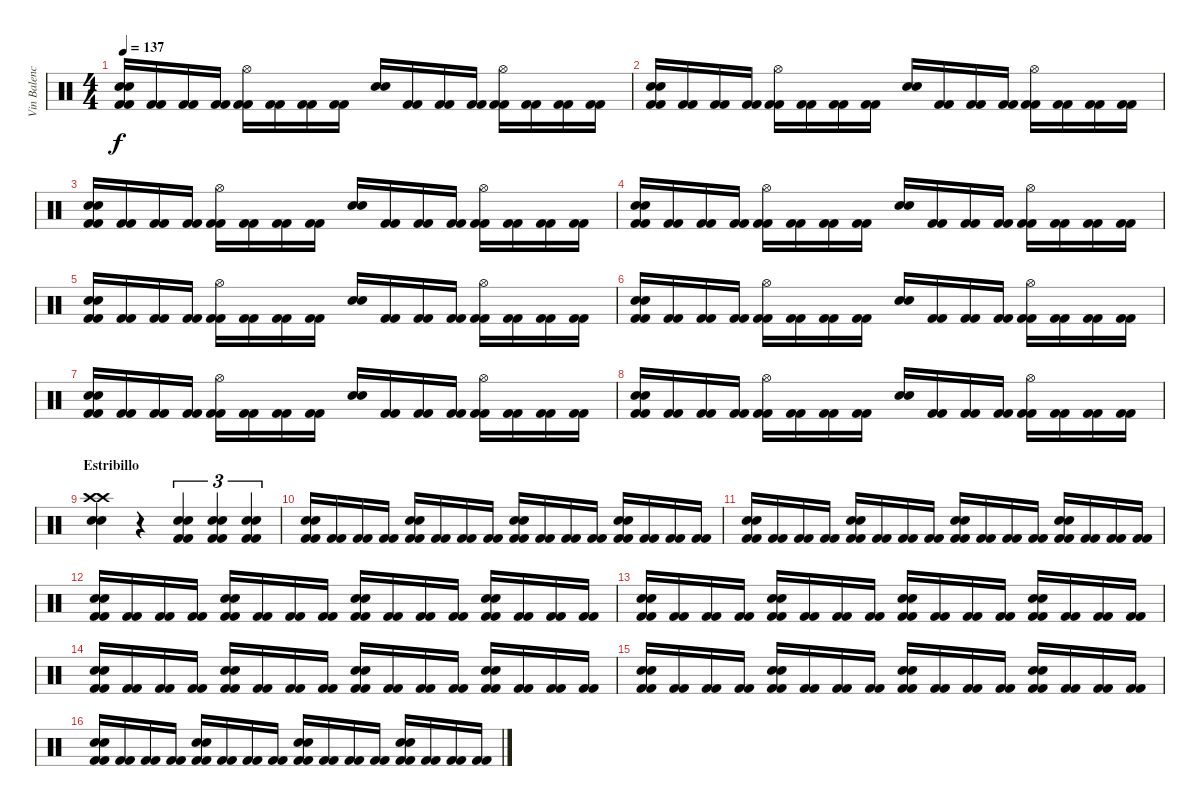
\track ("Vin Balencia (bateria)" "Vin Balenc") {instrument percussion}
\staff {score}
\articulation defaults
\ts (4 4)
\tempo 137
\clef neutral
\ks c
("Electric Snare (hit)" "Electric Snare (hit)" "Kick (hit) 2" "Kick (hit) 2").16{dy f} ("Kick (hit) 2" "Kick (hit) 2").16 ("Kick (hit) 2" "Kick (hit) 2").16 ("Kick (hit) 2" "Kick (hit) 2").16 ("Hi-Hat (open)" "Kick (hit) 2" "Kick (hit) 2").16 ("Kick (hit) 2" "Kick (hit) 2").16 ("Kick (hit) 2" "Kick (hit) 2").16 ("Kick (hit) 2" "Kick (hit) 2").16 ("Electric Snare (hit)" "Electric Snare (hit)").16 ("Kick (hit) 2" "Kick (hit) 2").16 ("Kick (hit) 2" "Kick (hit) 2").16 ("Kick (hit) 2" "Kick (hit) 2").16 ("Hi-Hat (open)" "Kick (hit) 2" "Kick (hit) 2").16 ("Kick (hit) 2" "Kick (hit) 2").16 ("Kick (hit) 2" "Kick (hit) 2").16 ("Kick (hit) 2" "Kick (hit) 2").16 |
("Electric Snare (hit)" "Electric Snare (hit)" "Kick (hit) 2" "Kick (hit) 2").16 ("Kick (hit) 2" "Kick (hit) 2").16 ("Kick (hit) 2" "Kick (hit) 2").16 ("Kick (hit) 2" "Kick (hit) 2").16 ("Hi-Hat (open)" "Kick (hit) 2" "Kick (hit) 2").16 ("Kick (hit) 2" "Kick (hit) 2").16 ("Kick (hit) 2" "Kick (hit) 2").16 ("Kick (hit) 2" "Kick (hit) 2").16 ("Electric Snare (hit)" "Electric Snare (hit)").16 ("Kick (hit) 2" "Kick (hit) 2").16 ("Kick (hit) 2" "Kick (hit) 2").16 ("Kick (hit) 2" "Kick (hit) 2").16 ("Hi-Hat (open)" "Kick (hit) 2" "Kick (hit) 2").16 ("Kick (hit) 2" "Kick (hit) 2").16 ("Kick (hit) 2" "Kick (hit) 2").16 ("Kick (hit) 2" "Kick (hit) 2").16 |
("Electric Snare (hit)" "Electric Snare (hit)" "Kick (hit) 2" "Kick (hit) 2").16 ("Kick (hit) 2" "Kick (hit) 2").16 ("Kick (hit) 2" "Kick (hit) 2").16 ("Kick (hit) 2" "Kick (hit) 2").16 ("Hi-Hat (open)" "Kick (hit) 2" "Kick (hit) 2").16 ("Kick (hit) 2" "Kick (hit) 2").16 ("Kick (hit) 2" "Kick (hit) 2").16 ("Kick (hit) 2" "Kick (hit) 2").16 ("Electric Snare (hit)" "Electric Snare (hit)").16 ("Kick (hit) 2" "Kick (hit) 2").16 ("Kick (hit) 2" "Kick (hit) 2").16 ("Kick (hit) 2" "Kick (hit) 2").16 ("Hi-Hat (open)" "Kick (hit) 2" "Kick (hit) 2").16 ("Kick (hit) 2" "Kick (hit) 2").16 ("Kick (hit) 2" "Kick (hit) 2").16 ("Kick (hit) 2" "Kick (hit) 2").16 |
("Electric Snare (hit)" "Electric Snare (hit)" "Kick (hit) 2" "Kick (hit) 2").16 ("Kick (hit) 2" "Kick (hit) 2").16 ("Kick (hit) 2" "Kick (hit) 2").16 ("Kick (hit) 2" "Kick (hit) 2").16 ("Hi-Hat (open)" "Kick (hit) 2" "Kick (hit) 2").16 ("Kick (hit) 2" "Kick (hit) 2").16 ("Kick (hit) 2" "Kick (hit) 2").16 ("Kick (hit) 2" "Kick (hit) 2").16 ("Electric Snare (hit)" "Electric Snare (hit)").16 ("Kick (hit) 2" "Kick (hit) 2").16 ("Kick (hit) 2" "Kick (hit) 2").16 ("Kick (hit) 2" "Kick (hit) 2").16 ("Hi-Hat (open)" "Kick (hit) 2" "Kick (hit) 2").16 ("Kick (hit) 2" "Kick (hit) 2").16 ("Kick (hit) 2" "Kick (hit) 2").16 ("Kick (hit) 2" "Kick (hit) 2").16 |
("Electric Snare (hit)" "Electric Snare (hit)" "Kick (hit) 2" "Kick (hit) 2").16 ("Kick (hit) 2" "Kick (hit) 2").16 ("Kick (hit) 2" "Kick (hit) 2").16 ("Kick (hit) 2" "Kick (hit) 2").16 ("Hi-Hat (open)" "Kick (hit) 2" "Kick (hit) 2").16 ("Kick (hit) 2" "Kick (hit) 2").16 ("Kick (hit) 2" "Kick (hit) 2").16 ("Kick (hit) 2" "Kick (hit) 2").16 ("Electric Snare (hit)" "Electric Snare (hit)").16 ("Kick (hit) 2" "Kick (hit) 2").16 ("Kick (hit) 2" "Kick (hit) 2").16 ("Kick (hit) 2" "Kick (hit) 2").16 ("Hi-Hat (open)" "Kick (hit) 2" "Kick (hit) 2").16 ("Kick (hit) 2" "Kick (hit) 2").16 ("Kick (hit) 2" "Kick (hit) 2").16 ("Kick (hit) 2" "Kick (hit) 2").16 |
("Electric Snare (hit)" "Electric Snare (hit)" "Kick (hit) 2" "Kick (hit) 2").16 ("Kick (hit) 2" "Kick (hit) 2").16 ("Kick (hit) 2" "Kick (hit) 2").16 ("Kick (hit) 2" "Kick (hit) 2").16 ("Hi-Hat (open)" "Kick (hit) 2" "Kick (hit) 2").16 ("Kick (hit) 2" "Kick (hit) 2").16 ("Kick (hit) 2" "Kick (hit) 2").16 ("Kick (hit) 2" "Kick (hit) 2").16 ("Electric Snare (hit)" "Electric Snare (hit)").16 ("Kick (hit) 2" "Kick (hit) 2").16 ("Kick (hit) 2" "Kick (hit) 2").16 ("Kick (hit) 2" "Kick (hit) 2").16 ("Hi-Hat (open)" "Kick (hit) 2" "Kick (hit) 2").16 ("Kick (hit) 2" "Kick (hit) 2").16 ("Kick (hit) 2" "Kick (hit) 2").16 ("Kick (hit) 2" "Kick (hit) 2").16 |
("Electric Snare (hit)" "Electric Snare (hit)" "Kick (hit) 2" "Kick (hit) 2").16 ("Kick (hit) 2" "Kick (hit) 2").16 ("Kick (hit) 2" "Kick (hit) 2").16 ("Kick (hit) 2" "Kick (hit) 2").16 ("Hi-Hat (open)" "Kick (hit) 2" "Kick (hit) 2").16 ("Kick (hit) 2" "Kick (hit) 2").16 ("Kick (hit) 2" "Kick (hit) 2").16 ("Kick (hit) 2" "Kick (hit) 2").16 ("Electric Snare (hit)" "Electric Snare (hit)").16 ("Kick (hit) 2" "Kick (hit) 2").16 ("Kick (hit) 2" "Kick (hit) 2").16 ("Kick (hit) 2" "Kick (hit) 2").16 ("Hi-Hat (open)" "Kick (hit) 2" "Kick (hit) 2").16 ("Kick (hit) 2" "Kick (hit) 2").16 ("Kick (hit) 2" "Kick (hit) 2").16 ("Kick (hit) 2" "Kick (hit) 2").16 |
("Electric Snare (hit)" "Electric Snare (hit)" "Kick (hit) 2" "Kick (hit) 2").16 ("Kick (hit) 2" "Kick (hit) 2").16 ("Kick (hit) 2" "Kick (hit) 2").16 ("Kick (hit) 2" "Kick (hit) 2").16 ("Hi-Hat (open)" "Kick (hit) 2" "Kick (hit) 2").16 ("Kick (hit) 2" "Kick (hit) 2").16 ("Kick (hit) 2" "Kick (hit) 2").16 ("Kick (hit) 2" "Kick (hit) 2").16 ("Electric Snare (hit)" "Electric Snare (hit)").16 ("Kick (hit) 2" "Kick (hit) 2").16 ("Kick (hit) 2" "Kick (hit) 2").16 ("Kick (hit) 2" "Kick (hit) 2").16 ("Hi-Hat (open)" "Kick (hit) 2" "Kick (hit) 2").16 ("Kick (hit) 2" "Kick (hit) 2").16 ("Kick (hit) 2" "Kick (hit) 2").16 ("Kick (hit) 2" "Kick (hit) 2").16 |
\section ("" "Estribillo")
("Crash high (hit)" "Crash high (hit)" "Snare (hit) 2" "Snare (hit) 2").4 r.4 ("Electric Snare (hit)" "Electric Snare (hit)" "Kick (hit) 2" "Kick (hit) 2").4{tu (3 2)} ("Electric Snare (hit)" "Electric Snare (hit)" "Kick (hit) 2" "Kick (hit) 2").4{tu (3 2)} ("Electric Snare (hit)" "Electric Snare (hit)" "Kick (hit) 2" "Kick (hit) 2").4{tu (3 2)} |
("Electric Snare (hit)" "Electric Snare (hit)" "Kick (hit) 2" "Kick (hit) 2").16 ("Kick (hit) 2" "Kick (hit) 2").16 ("Kick (hit) 2" "Kick (hit) 2").16 ("Kick (hit) 2" "Kick (hit) 2").16 ("Electric Snare (hit)" "Electric Snare (hit)" "Kick (hit) 2" "Kick (hit) 2").16 ("Kick (hit) 2" "Kick (hit) 2").16 ("Kick (hit) 2" "Kick (hit) 2").16 ("Kick (hit) 2" "Kick (hit) 2").16 ("Electric Snare (hit)" "Electric Snare (hit)" "Kick (hit) 2" "Kick (hit) 2").16 ("Kick (hit) 2" "Kick (hit) 2").16 ("Kick (hit) 2" "Kick (hit) 2").16 ("Kick (hit) 2" "Kick (hit) 2").16 ("Electric Snare (hit)" "Electric Snare (hit)" "Kick (hit) 2" "Kick (hit) 2").16 ("Kick (hit) 2" "Kick (hit) 2").16 ("Kick (hit) 2" "Kick (hit) 2").16 ("Kick (hit) 2" "Kick (hit) 2").16 |
("Electric Snare (hit)" "Electric Snare (hit)" "Kick (hit) 2" "Kick (hit) 2").16 ("Kick (hit) 2" "Kick (hit) 2").16 ("Kick (hit) 2" "Kick (hit) 2").16 ("Kick (hit) 2" "Kick (hit) 2").16 ("Electric Snare (hit)" "Electric Snare (hit)" "Kick (hit) 2" "Kick (hit) 2").16 ("Kick (hit) 2" "Kick (hit) 2").16 ("Kick (hit) 2" "Kick (hit) 2").16 ("Kick (hit) 2" "Kick (hit) 2").16 ("Electric Snare (hit)" "Electric Snare (hit)" "Kick (hit) 2" "Kick (hit) 2").16 ("Kick (hit) 2" "Kick (hit) 2").16 ("Kick (hit) 2" "Kick (hit) 2").16 ("Kick (hit) 2" "Kick (hit) 2").16 ("Electric Snare (hit)" "Electric Snare (hit)" "Kick (hit) 2" "Kick (hit) 2").16 ("Kick (hit) 2" "Kick (hit) 2").16 ("Kick (hit) 2" "Kick (hit) 2").16 ("Kick (hit) 2" "Kick (hit) 2").16 |
("Electric Snare (hit)" "Electric Snare (hit)" "Kick (hit) 2" "Kick (hit) 2").16 ("Kick (hit) 2" "Kick (hit) 2").16 ("Kick (hit) 2" "Kick (hit) 2").16 ("Kick (hit) 2" "Kick (hit) 2").16 ("Electric Snare (hit)" "Electric Snare (hit)" "Kick (hit) 2" "Kick (hit) 2").16 ("Kick (hit) 2" "Kick (hit) 2").16 ("Kick (hit) 2" "Kick (hit) 2").16 ("Kick (hit) 2" "Kick (hit) 2").16 ("Electric Snare (hit)" "Electric Snare (hit)" "Kick (hit) 2" "Kick (hit) 2").16 ("Kick (hit) 2" "Kick (hit) 2").16 ("Kick (hit) 2" "Kick (hit) 2").16 ("Kick (hit) 2" "Kick (hit) 2").16 ("Electric Snare (hit)" "Electric Snare (hit)" "Kick (hit) 2" "Kick (hit) 2").16 ("Kick (hit) 2" "Kick (hit) 2").16 ("Kick (hit) 2" "Kick (hit) 2").16 ("Kick (hit) 2" "Kick (hit) 2").16 |
("Electric Snare (hit)" "Electric Snare (hit)" "Kick (hit) 2" "Kick (hit) 2").16 ("Kick (hit) 2" "Kick (hit) 2").16 ("Kick (hit) 2" "Kick (hit) 2").16 ("Kick (hit) 2" "Kick (hit) 2").16 ("Electric Snare (hit)" "Electric Snare (hit)" "Kick (hit) 2" "Kick (hit) 2").16 ("Kick (hit) 2" "Kick (hit) 2").16 ("Kick (hit) 2" "Kick (hit) 2").16 ("Kick (hit) 2" "Kick (hit) 2").16 ("Electric Snare (hit)" "Electric Snare (hit)" "Kick (hit) 2" "Kick (hit) 2").16 ("Kick (hit) 2" "Kick (hit) 2").16 ("Kick (hit) 2" "Kick (hit) 2").16 ("Kick (hit) 2" "Kick (hit) 2").16 ("Electric Snare (hit)" "Electric Snare (hit)" "Kick (hit) 2" "Kick (hit) 2").16 ("Kick (hit) 2" "Kick (hit) 2").16 ("Kick (hit) 2" "Kick (hit) 2").16 ("Kick (hit) 2" "Kick (hit) 2").16 |
("Electric Snare (hit)" "Electric Snare (hit)" "Kick (hit) 2" "Kick (hit) 2").16 ("Kick (hit) 2" "Kick (hit) 2").16 ("Kick (hit) 2" "Kick (hit) 2").16 ("Kick (hit) 2" "Kick (hit) 2").16 ("Electric Snare (hit)" "Electric Snare (hit)" "Kick (hit) 2" "Kick (hit) 2").16 ("Kick (hit) 2" "Kick (hit) 2").16 ("Kick (hit) 2" "Kick (hit) 2").16 ("Kick (hit) 2" "Kick (hit) 2").16 ("Electric Snare (hit)" "Electric Snare (hit)" "Kick (hit) 2" "Kick (hit) 2").16 ("Kick (hit) 2" "Kick (hit) 2").16 ("Kick (hit) 2" "Kick (hit) 2").16 ("Kick (hit) 2" "Kick (hit) 2").16 ("Electric Snare (hit)" "Electric Snare (hit)" "Kick (hit) 2" "Kick (hit) 2").16 ("Kick (hit) 2" "Kick (hit) 2").16 ("Kick (hit) 2" "Kick (hit) 2").16 ("Kick (hit) 2" "Kick (hit) 2").16 |
("Electric Snare (hit)" "Electric Snare (hit)" "Kick (hit) 2" "Kick (hit) 2").16 ("Kick (hit) 2" "Kick (hit) 2").16 ("Kick (hit) 2" "Kick (hit) 2").16 ("Kick (hit) 2" "Kick (hit) 2").16 ("Electric Snare (hit)" "Electric Snare (hit)" "Kick (hit) 2" "Kick (hit) 2").16 ("Kick (hit) 2" "Kick (hit) 2").16 ("Kick (hit) 2" "Kick (hit) 2").16 ("Kick (hit) 2" "Kick (hit) 2").16 ("Electric Snare (hit)" "Electric Snare (hit)" "Kick (hit) 2" "Kick (hit) 2").16 ("Kick (hit) 2" "Kick (hit) 2").16 ("Kick (hit) 2" "Kick (hit) 2").16 ("Kick (hit) 2" "Kick (hit) 2").16 ("Electric Snare (hit)" "Electric Snare (hit)" "Kick (hit) 2" "Kick (hit) 2").16 ("Kick (hit) 2" "Kick (hit) 2").16 ("Kick (hit) 2" "Kick (hit) 2").16 ("Kick (hit) 2" "Kick (hit) 2").16 |
("Electric Snare (hit)" "Electric Snare (hit)" "Kick (hit) 2" "Kick (hit) 2").16 ("Kick (hit) 2" "Kick (hit) 2").16 ("Kick (hit) 2" "Kick (hit) 2").16 ("Kick (hit) 2" "Kick (hit) 2").16 ("Electric Snare (hit)" "Electric Snare (hit)" "Kick (hit) 2" "Kick (hit) 2").16 ("Kick (hit) 2" "Kick (hit) 2").16 ("Kick (hit) 2" "Kick (hit) 2").16 ("Kick (hit) 2" "Kick (hit) 2").16 ("Electric Snare (hit)" "Electric Snare (hit)" "Kick (hit) 2" "Kick (hit) 2").16 ("Kick (hit) 2" "Kick (hit) 2").16 ("Kick (hit) 2" "Kick (hit) 2").16 ("Kick (hit) 2" "Kick (hit) 2").16 ("Electric Snare (hit)" "Electric Snare (hit)" "Kick (hit) 2" "Kick (hit) 2").16 ("Kick (hit) 2" "Kick (hit) 2").16 ("Kick (hit) 2" "Kick (hit) 2").16 ("Kick (hit) 2" "Kick (hit) 2").16
